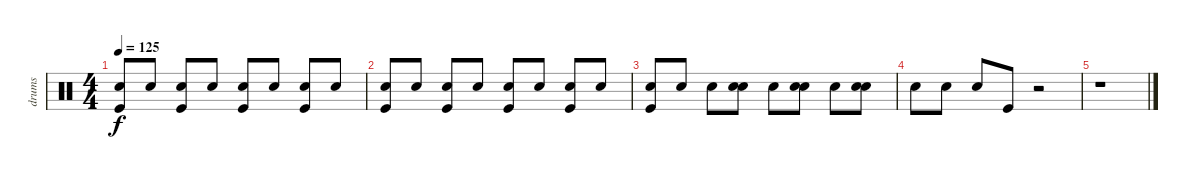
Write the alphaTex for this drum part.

\track ("drums" "drums") {instrument percussion}
\staff {score}
\articulation defaults
\ts (4 4)
\tempo 125
\clef neutral
\ks c
("Kick (hit)" "Snare (hit) 2").8{dy f} "Snare (hit) 2".8 ("Kick (hit)" "Hand Clap (hit)").8 "Snare (hit) 2".8 ("Kick (hit)" "Snare (hit) 2").8 "Snare (hit) 2".8 ("Kick (hit)" "Hand Clap (hit)").8 "Snare (hit) 2".8 |
("Kick (hit)" "Snare (hit) 2").8 "Snare (hit) 2".8 ("Kick (hit)" "Hand Clap (hit)").8 "Snare (hit) 2".8 ("Kick (hit)" "Snare (hit) 2").8 "Snare (hit) 2".8 ("Kick (hit)" "Hand Clap (hit)").8 "Snare (hit) 2".8 |
("Kick (hit)" "Snare (hit) 2").8 "Snare (hit) 2".8 "Snare (hit) 2".8 ("Snare (hit) 2" "Snare (hit) 2").8 "Snare (hit) 2".8 ("Snare (hit) 2" "Snare (hit) 2").8 "Snare (hit) 2".8 ("Snare (hit) 2" "Hand Clap (hit)").8 |
"Snare (hit) 2".8 "Snare (hit) 2".8 "Snare (hit) 2".8 "Kick (hit)".8 r.2 |
r.1
